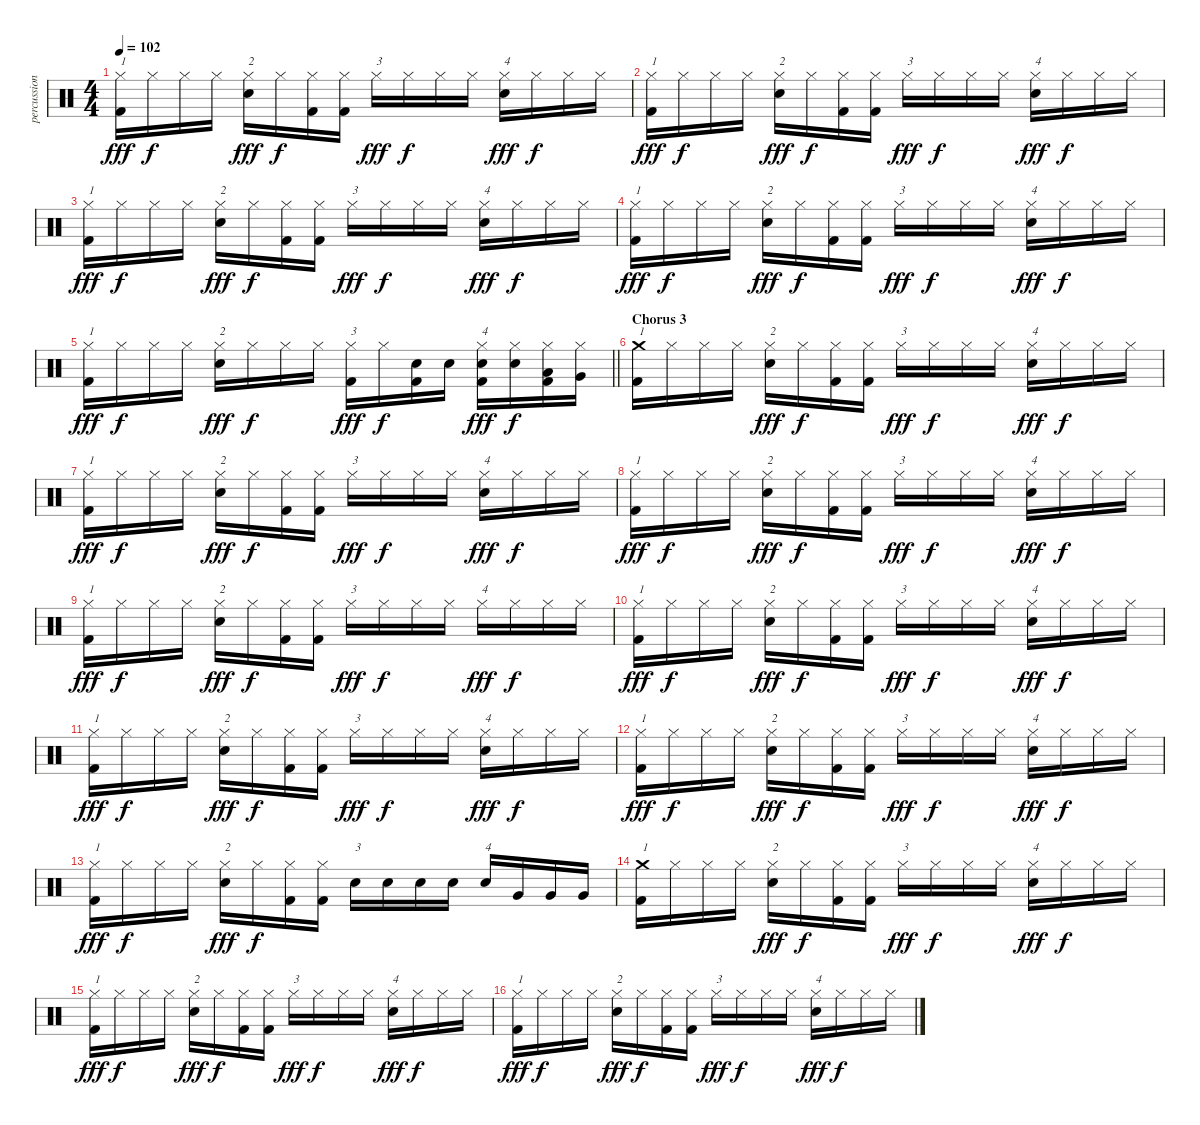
\track ("percussion" "percussion") {instrument percussion}
\staff {score}
\articulation defaults
\ts (4 4)
\tempo 102
\clef neutral
\ks c
("Hi-Hat (closed)" "Kick (hit) 2").16{txt "1" dy fff} "Hi-Hat (closed)".16{dy f} "Hi-Hat (closed)".16 "Hi-Hat (closed)".16 ("Snare (hit) 2" "Hi-Hat (closed)").16{txt "2" dy fff} "Hi-Hat (closed)".16{dy f} ("Hi-Hat (closed)" "Kick (hit) 2").16 ("Hi-Hat (closed)" "Kick (hit) 2").16 "Hi-Hat (closed)".16{txt "3" dy fff} "Hi-Hat (closed)".16{dy f} "Hi-Hat (closed)".16 "Hi-Hat (closed)".16 ("Snare (hit) 2" "Hi-Hat (closed)").16{txt "4" dy fff} "Hi-Hat (closed)".16{dy f} "Hi-Hat (closed)".16 "Hi-Hat (closed)".16 |
("Hi-Hat (closed)" "Kick (hit) 2").16{txt "1" dy fff} "Hi-Hat (closed)".16{dy f} "Hi-Hat (closed)".16 "Hi-Hat (closed)".16 ("Snare (hit) 2" "Hi-Hat (closed)").16{txt "2" dy fff} "Hi-Hat (closed)".16{dy f} ("Hi-Hat (closed)" "Kick (hit) 2").16 ("Hi-Hat (closed)" "Kick (hit) 2").16 "Hi-Hat (closed)".16{txt "3" dy fff} "Hi-Hat (closed)".16{dy f} "Hi-Hat (closed)".16 "Hi-Hat (closed)".16 ("Snare (hit) 2" "Hi-Hat (closed)").16{txt "4" dy fff} "Hi-Hat (closed)".16{dy f} "Hi-Hat (closed)".16 "Hi-Hat (closed)".16 |
("Hi-Hat (closed)" "Kick (hit) 2").16{txt "1" dy fff} "Hi-Hat (closed)".16{dy f} "Hi-Hat (closed)".16 "Hi-Hat (closed)".16 ("Snare (hit) 2" "Hi-Hat (closed)").16{txt "2" dy fff} "Hi-Hat (closed)".16{dy f} ("Hi-Hat (closed)" "Kick (hit) 2").16 ("Hi-Hat (closed)" "Kick (hit) 2").16 "Hi-Hat (closed)".16{txt "3" dy fff} "Hi-Hat (closed)".16{dy f} "Hi-Hat (closed)".16 "Hi-Hat (closed)".16 ("Snare (hit) 2" "Hi-Hat (closed)").16{txt "4" dy fff} "Hi-Hat (closed)".16{dy f} "Hi-Hat (closed)".16 "Hi-Hat (closed)".16 |
("Hi-Hat (closed)" "Kick (hit) 2").16{txt "1" dy fff} "Hi-Hat (closed)".16{dy f} "Hi-Hat (closed)".16 "Hi-Hat (closed)".16 ("Snare (hit) 2" "Hi-Hat (closed)").16{txt "2" dy fff} "Hi-Hat (closed)".16{dy f} ("Hi-Hat (closed)" "Kick (hit) 2").16 ("Hi-Hat (closed)" "Kick (hit) 2").16 "Hi-Hat (closed)".16{txt "3" dy fff} "Hi-Hat (closed)".16{dy f} "Hi-Hat (closed)".16 "Hi-Hat (closed)".16 ("Snare (hit) 2" "Hi-Hat (closed)").16{txt "4" dy fff} "Hi-Hat (closed)".16{dy f} "Hi-Hat (closed)".16 "Hi-Hat (closed)".16 |
\barLineRight lightlight
("Hi-Hat (closed)" "Kick (hit) 2").16{txt "1" dy fff} "Hi-Hat (closed)".16{dy f} "Hi-Hat (closed)".16 "Hi-Hat (closed)".16 ("Snare (hit) 2" "Hi-Hat (closed)").16{txt "2" dy fff} "Hi-Hat (closed)".16{dy f} "Hi-Hat (closed)".16 "Hi-Hat (closed)".16 ("Hi-Hat (closed)" "Kick (hit) 2").16{txt "3" dy fff} "Hi-Hat (closed)".16{dy f} ("Snare (hit) 2" "Kick (hit) 2").16 "Snare (hit) 2".16 ("Snare (hit) 2" "Hi-Hat (closed)" "Kick (hit) 2").16{txt "4" dy fff} ("Snare (hit) 2" "Hi-Hat (closed)").16{dy f} ("Low Tom (hit)" "Hi-Hat (closed)" "Kick (hit) 2").16 ("Very Low Tom (hit)" "Hi-Hat (closed)").16 |
\section ("" "Chorus 3")
("Crash medium (hit)" "Kick (hit) 2").16{txt "1"} "Hi-Hat (closed)".16 "Hi-Hat (closed)".16 "Hi-Hat (closed)".16 ("Snare (hit) 2" "Hi-Hat (closed)").16{txt "2" dy fff} "Hi-Hat (closed)".16{dy f} ("Hi-Hat (closed)" "Kick (hit) 2").16 ("Hi-Hat (closed)" "Kick (hit) 2").16 "Hi-Hat (closed)".16{txt "3" dy fff} "Hi-Hat (closed)".16{dy f} "Hi-Hat (closed)".16 "Hi-Hat (closed)".16 ("Snare (hit) 2" "Hi-Hat (closed)").16{txt "4" dy fff} "Hi-Hat (closed)".16{dy f} "Hi-Hat (closed)".16 "Hi-Hat (closed)".16 |
("Hi-Hat (closed)" "Kick (hit) 2").16{txt "1" dy fff} "Hi-Hat (closed)".16{dy f} "Hi-Hat (closed)".16 "Hi-Hat (closed)".16 ("Snare (hit) 2" "Hi-Hat (closed)").16{txt "2" dy fff} "Hi-Hat (closed)".16{dy f} ("Hi-Hat (closed)" "Kick (hit) 2").16 ("Hi-Hat (closed)" "Kick (hit) 2").16 "Hi-Hat (closed)".16{txt "3" dy fff} "Hi-Hat (closed)".16{dy f} "Hi-Hat (closed)".16 "Hi-Hat (closed)".16 ("Snare (hit) 2" "Hi-Hat (closed)").16{txt "4" dy fff} "Hi-Hat (closed)".16{dy f} "Hi-Hat (closed)".16 "Hi-Hat (closed)".16 |
("Hi-Hat (closed)" "Kick (hit) 2").16{txt "1" dy fff} "Hi-Hat (closed)".16{dy f} "Hi-Hat (closed)".16 "Hi-Hat (closed)".16 ("Snare (hit) 2" "Hi-Hat (closed)").16{txt "2" dy fff} "Hi-Hat (closed)".16{dy f} ("Hi-Hat (closed)" "Kick (hit) 2").16 ("Hi-Hat (closed)" "Kick (hit) 2").16 "Hi-Hat (closed)".16{txt "3" dy fff} "Hi-Hat (closed)".16{dy f} "Hi-Hat (closed)".16 "Hi-Hat (closed)".16 ("Snare (hit) 2" "Hi-Hat (closed)").16{txt "4" dy fff} "Hi-Hat (closed)".16{dy f} "Hi-Hat (closed)".16 "Hi-Hat (closed)".16 |
("Hi-Hat (closed)" "Kick (hit) 2").16{txt "1" dy fff} "Hi-Hat (closed)".16{dy f} "Hi-Hat (closed)".16 "Hi-Hat (closed)".16 ("Snare (hit) 2" "Hi-Hat (closed)").16{txt "2" dy fff} "Hi-Hat (closed)".16{dy f} ("Hi-Hat (closed)" "Kick (hit) 2").16 ("Hi-Hat (closed)" "Kick (hit) 2").16 "Hi-Hat (closed)".16{txt "3" dy fff} "Hi-Hat (closed)".16{dy f} "Hi-Hat (closed)".16 "Hi-Hat (closed)".16 "Hi-Hat (closed)".16{txt "4" dy fff} "Hi-Hat (closed)".16{dy f} "Hi-Hat (closed)".16 "Hi-Hat (closed)".16 |
("Hi-Hat (closed)" "Kick (hit) 2").16{txt "1" dy fff} "Hi-Hat (closed)".16{dy f} "Hi-Hat (closed)".16 "Hi-Hat (closed)".16 ("Snare (hit) 2" "Hi-Hat (closed)").16{txt "2" dy fff} "Hi-Hat (closed)".16{dy f} ("Hi-Hat (closed)" "Kick (hit) 2").16 ("Hi-Hat (closed)" "Kick (hit) 2").16 "Hi-Hat (closed)".16{txt "3" dy fff} "Hi-Hat (closed)".16{dy f} "Hi-Hat (closed)".16 "Hi-Hat (closed)".16 ("Snare (hit) 2" "Hi-Hat (closed)").16{txt "4" dy fff} "Hi-Hat (closed)".16{dy f} "Hi-Hat (closed)".16 "Hi-Hat (closed)".16 |
("Hi-Hat (closed)" "Kick (hit) 2").16{txt "1" dy fff} "Hi-Hat (closed)".16{dy f} "Hi-Hat (closed)".16 "Hi-Hat (closed)".16 ("Snare (hit) 2" "Hi-Hat (closed)").16{txt "2" dy fff} "Hi-Hat (closed)".16{dy f} ("Hi-Hat (closed)" "Kick (hit) 2").16 ("Hi-Hat (closed)" "Kick (hit) 2").16 "Hi-Hat (closed)".16{txt "3" dy fff} "Hi-Hat (closed)".16{dy f} "Hi-Hat (closed)".16 "Hi-Hat (closed)".16 ("Snare (hit) 2" "Hi-Hat (closed)").16{txt "4" dy fff} "Hi-Hat (closed)".16{dy f} "Hi-Hat (closed)".16 "Hi-Hat (closed)".16 |
("Hi-Hat (closed)" "Kick (hit) 2").16{txt "1" dy fff} "Hi-Hat (closed)".16{dy f} "Hi-Hat (closed)".16 "Hi-Hat (closed)".16 ("Snare (hit) 2" "Hi-Hat (closed)").16{txt "2" dy fff} "Hi-Hat (closed)".16{dy f} ("Hi-Hat (closed)" "Kick (hit) 2").16 ("Hi-Hat (closed)" "Kick (hit) 2").16 "Hi-Hat (closed)".16{txt "3" dy fff} "Hi-Hat (closed)".16{dy f} "Hi-Hat (closed)".16 "Hi-Hat (closed)".16 ("Snare (hit) 2" "Hi-Hat (closed)").16{txt "4" dy fff} "Hi-Hat (closed)".16{dy f} "Hi-Hat (closed)".16 "Hi-Hat (closed)".16 |
("Hi-Hat (closed)" "Kick (hit) 2").16{txt "1" dy fff} "Hi-Hat (closed)".16{dy f} "Hi-Hat (closed)".16 "Hi-Hat (closed)".16 ("Snare (hit) 2" "Hi-Hat (closed)").16{txt "2" dy fff} "Hi-Hat (closed)".16{dy f} ("Hi-Hat (closed)" "Kick (hit) 2").16 ("Hi-Hat (closed)" "Kick (hit) 2").16 "Snare (hit) 2".16{txt "3"} "Snare (hit) 2".16 "Snare (hit) 2".16 "Snare (hit) 2".16 "Snare (hit) 2".16{txt "4"} "Very Low Tom (hit)".16 "Very Low Tom (hit)".16 "Very Low Tom (hit)".16 |
("Crash medium (hit)" "Kick (hit) 2").16{txt "1"} "Hi-Hat (closed)".16 "Hi-Hat (closed)".16 "Hi-Hat (closed)".16 ("Snare (hit) 2" "Hi-Hat (closed)").16{txt "2" dy fff} "Hi-Hat (closed)".16{dy f} ("Hi-Hat (closed)" "Kick (hit) 2").16 ("Hi-Hat (closed)" "Kick (hit) 2").16 "Hi-Hat (closed)".16{txt "3" dy fff} "Hi-Hat (closed)".16{dy f} "Hi-Hat (closed)".16 "Hi-Hat (closed)".16 ("Snare (hit) 2" "Hi-Hat (closed)").16{txt "4" dy fff} "Hi-Hat (closed)".16{dy f} "Hi-Hat (closed)".16 "Hi-Hat (closed)".16 |
("Hi-Hat (closed)" "Kick (hit) 2").16{txt "1" dy fff} "Hi-Hat (closed)".16{dy f} "Hi-Hat (closed)".16 "Hi-Hat (closed)".16 ("Snare (hit) 2" "Hi-Hat (closed)").16{txt "2" dy fff} "Hi-Hat (closed)".16{dy f} ("Hi-Hat (closed)" "Kick (hit) 2").16 ("Hi-Hat (closed)" "Kick (hit) 2").16 "Hi-Hat (closed)".16{txt "3" dy fff} "Hi-Hat (closed)".16{dy f} "Hi-Hat (closed)".16 "Hi-Hat (closed)".16 ("Snare (hit) 2" "Hi-Hat (closed)").16{txt "4" dy fff} "Hi-Hat (closed)".16{dy f} "Hi-Hat (closed)".16 "Hi-Hat (closed)".16 |
("Hi-Hat (closed)" "Kick (hit) 2").16{txt "1" dy fff} "Hi-Hat (closed)".16{dy f} "Hi-Hat (closed)".16 "Hi-Hat (closed)".16 ("Snare (hit) 2" "Hi-Hat (closed)").16{txt "2" dy fff} "Hi-Hat (closed)".16{dy f} ("Hi-Hat (closed)" "Kick (hit) 2").16 ("Hi-Hat (closed)" "Kick (hit) 2").16 "Hi-Hat (closed)".16{txt "3" dy fff} "Hi-Hat (closed)".16{dy f} "Hi-Hat (closed)".16 "Hi-Hat (closed)".16 ("Snare (hit) 2" "Hi-Hat (closed)").16{txt "4" dy fff} "Hi-Hat (closed)".16{dy f} "Hi-Hat (closed)".16 "Hi-Hat (closed)".16
